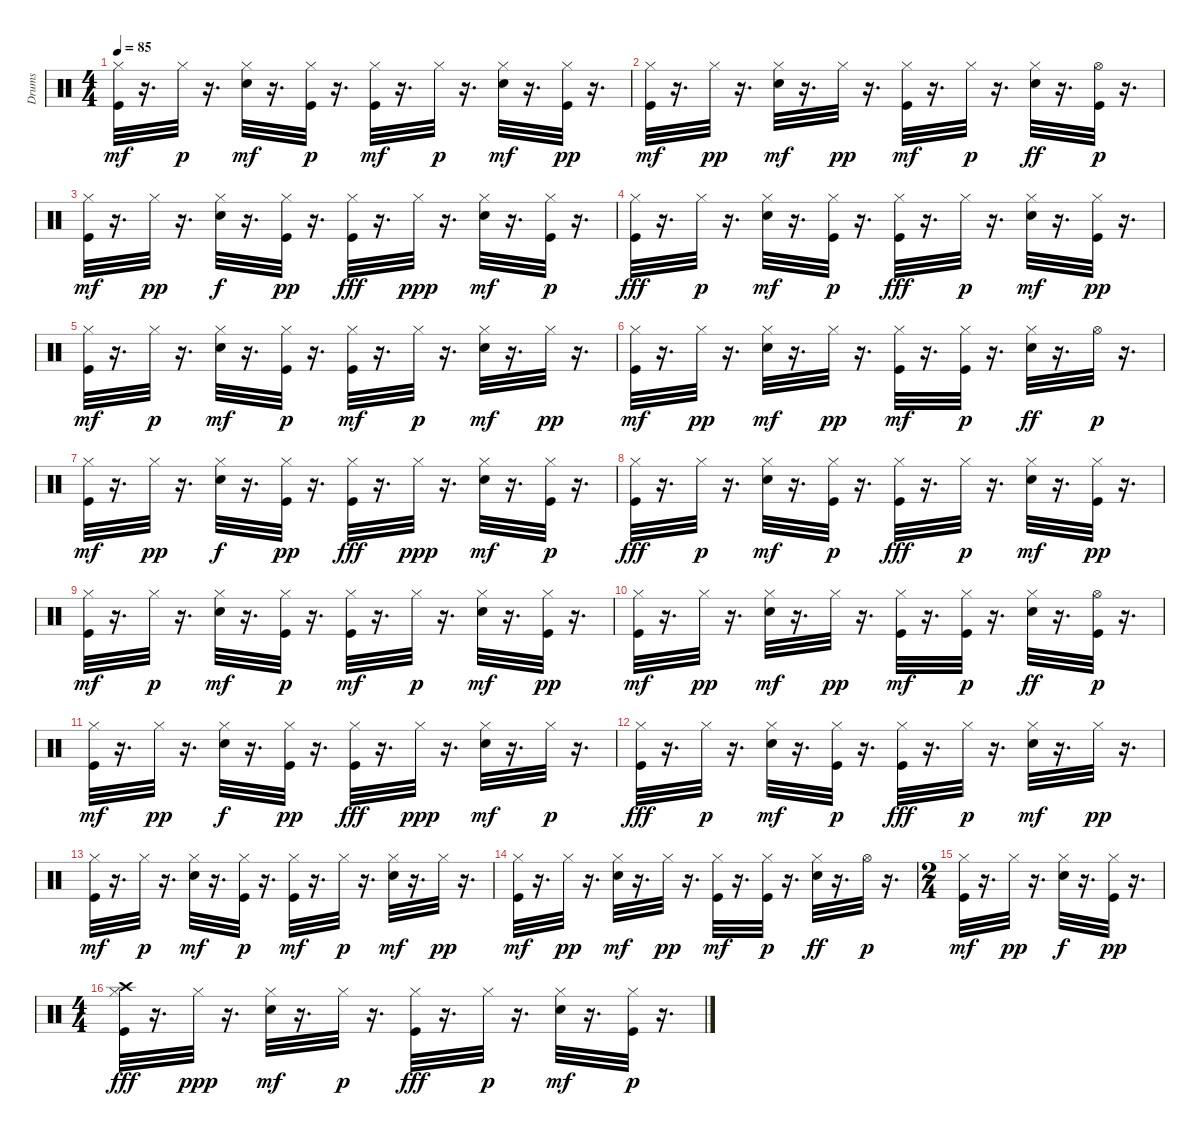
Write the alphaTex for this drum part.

\track ("Drums" "Drums") {instrument percussion}
\staff {score}
\articulation defaults
\ts (4 4)
\tempo 85
\clef neutral
\ks c
("Kick (hit)" "Hi-Hat (closed)").32{dy mf} r.16{d} "Hi-Hat (closed)".32{dy p} r.16{d} ("Electric Snare (hit)" "Hi-Hat (closed)").32{dy mf} r.16{d} ("Kick (hit)" "Hi-Hat (closed)").32{dy p} r.16{d} ("Kick (hit)" "Hi-Hat (closed)").32{dy mf} r.16{d} "Hi-Hat (closed)".32{dy p} r.16{d} ("Electric Snare (hit)" "Hi-Hat (closed)").32{dy mf} r.16{d} ("Kick (hit)" "Hi-Hat (closed)").32{dy pp} r.16{d} |
("Kick (hit)" "Hi-Hat (closed)").32{dy mf} r.16{d} "Hi-Hat (closed)".32{dy pp} r.16{d} ("Electric Snare (hit)" "Hi-Hat (closed)").32{dy mf} r.16{d} "Hi-Hat (closed)".32{dy pp} r.16{d} ("Kick (hit)" "Hi-Hat (closed)").32{dy mf} r.16{d} "Hi-Hat (closed)".32{dy p} r.16{d} ("Electric Snare (hit)" "Hi-Hat (closed)").32{dy ff} r.16{d} ("Kick (hit)" "Hi-Hat (open)").32{dy p} r.16{d} |
("Kick (hit)" "Hi-Hat (closed)").32{dy mf} r.16{d} "Hi-Hat (closed)".32{dy pp} r.16{d} ("Electric Snare (hit)" "Hi-Hat (closed)").32{dy f} r.16{d} ("Kick (hit)" "Hi-Hat (closed)").32{dy pp} r.16{d} ("Kick (hit)" "Hi-Hat (closed)").32{dy fff} r.16{d} "Hi-Hat (closed)".32{dy ppp} r.16{d} ("Electric Snare (hit)" "Hi-Hat (closed)").32{dy mf} r.16{d} ("Kick (hit)" "Hi-Hat (closed)").32{dy p} r.16{d} |
("Kick (hit)" "Hi-Hat (closed)").32{dy fff} r.16{d} "Hi-Hat (closed)".32{dy p} r.16{d} ("Electric Snare (hit)" "Hi-Hat (closed)").32{dy mf} r.16{d} ("Kick (hit)" "Hi-Hat (closed)").32{dy p} r.16{d} ("Kick (hit)" "Hi-Hat (closed)").32{dy fff} r.16{d} "Hi-Hat (closed)".32{dy p} r.16{d} ("Electric Snare (hit)" "Hi-Hat (closed)").32{dy mf} r.16{d} ("Kick (hit)" "Hi-Hat (closed)").32{dy pp} r.16{d} |
("Kick (hit)" "Hi-Hat (closed)").32{dy mf} r.16{d} "Hi-Hat (closed)".32{dy p} r.16{d} ("Electric Snare (hit)" "Hi-Hat (closed)").32{dy mf} r.16{d} ("Kick (hit)" "Hi-Hat (closed)").32{dy p} r.16{d} ("Kick (hit)" "Hi-Hat (closed)").32{dy mf} r.16{d} "Hi-Hat (closed)".32{dy p} r.16{d} ("Electric Snare (hit)" "Hi-Hat (closed)").32{dy mf} r.16{d} "Hi-Hat (closed)".32{dy pp} r.16{d} |
("Kick (hit)" "Hi-Hat (closed)").32{dy mf} r.16{d} "Hi-Hat (closed)".32{dy pp} r.16{d} ("Electric Snare (hit)" "Hi-Hat (closed)").32{dy mf} r.16{d} "Hi-Hat (closed)".32{dy pp} r.16{d} ("Kick (hit)" "Hi-Hat (closed)").32{dy mf} r.16{d} ("Kick (hit)" "Hi-Hat (closed)").32{dy p} r.16{d} ("Electric Snare (hit)" "Hi-Hat (closed)").32{dy ff} r.16{d} "Hi-Hat (open)".32{dy p} r.16{d} |
("Kick (hit)" "Hi-Hat (closed)").32{dy mf} r.16{d} "Hi-Hat (closed)".32{dy pp} r.16{d} ("Electric Snare (hit)" "Hi-Hat (closed)").32{dy f} r.16{d} ("Kick (hit)" "Hi-Hat (closed)").32{dy pp} r.16{d} ("Kick (hit)" "Hi-Hat (closed)").32{dy fff} r.16{d} "Hi-Hat (closed)".32{dy ppp} r.16{d} ("Electric Snare (hit)" "Hi-Hat (closed)").32{dy mf} r.16{d} ("Kick (hit)" "Hi-Hat (closed)").32{dy p} r.16{d} |
("Kick (hit)" "Hi-Hat (closed)").32{dy fff} r.16{d} "Hi-Hat (closed)".32{dy p} r.16{d} ("Electric Snare (hit)" "Hi-Hat (closed)").32{dy mf} r.16{d} ("Kick (hit)" "Hi-Hat (closed)").32{dy p} r.16{d} ("Kick (hit)" "Hi-Hat (closed)").32{dy fff} r.16{d} "Hi-Hat (closed)".32{dy p} r.16{d} ("Electric Snare (hit)" "Hi-Hat (closed)").32{dy mf} r.16{d} ("Kick (hit)" "Hi-Hat (closed)").32{dy pp} r.16{d} |
("Kick (hit)" "Hi-Hat (closed)").32{dy mf} r.16{d} "Hi-Hat (closed)".32{dy p} r.16{d} ("Electric Snare (hit)" "Hi-Hat (closed)").32{dy mf} r.16{d} ("Kick (hit)" "Hi-Hat (closed)").32{dy p} r.16{d} ("Kick (hit)" "Hi-Hat (closed)").32{dy mf} r.16{d} "Hi-Hat (closed)".32{dy p} r.16{d} ("Electric Snare (hit)" "Hi-Hat (closed)").32{dy mf} r.16{d} ("Kick (hit)" "Hi-Hat (closed)").32{dy pp} r.16{d} |
("Kick (hit)" "Hi-Hat (closed)").32{dy mf} r.16{d} "Hi-Hat (closed)".32{dy pp} r.16{d} ("Electric Snare (hit)" "Hi-Hat (closed)").32{dy mf} r.16{d} "Hi-Hat (closed)".32{dy pp} r.16{d} ("Kick (hit)" "Hi-Hat (closed)").32{dy mf} r.16{d} ("Kick (hit)" "Hi-Hat (closed)").32{dy p} r.16{d} ("Electric Snare (hit)" "Hi-Hat (closed)").32{dy ff} r.16{d} ("Kick (hit)" "Hi-Hat (open)").32{dy p} r.16{d} |
("Kick (hit)" "Hi-Hat (closed)").32{dy mf} r.16{d} "Hi-Hat (closed)".32{dy pp} r.16{d} ("Electric Snare (hit)" "Hi-Hat (closed)").32{dy f} r.16{d} ("Kick (hit)" "Hi-Hat (closed)").32{dy pp} r.16{d} ("Kick (hit)" "Hi-Hat (closed)").32{dy fff} r.16{d} "Hi-Hat (closed)".32{dy ppp} r.16{d} ("Electric Snare (hit)" "Hi-Hat (closed)").32{dy mf} r.16{d} "Hi-Hat (closed)".32{dy p} r.16{d} |
("Kick (hit)" "Hi-Hat (closed)").32{dy fff} r.16{d} "Hi-Hat (closed)".32{dy p} r.16{d} ("Electric Snare (hit)" "Hi-Hat (closed)").32{dy mf} r.16{d} ("Kick (hit)" "Hi-Hat (closed)").32{dy p} r.16{d} ("Kick (hit)" "Hi-Hat (closed)").32{dy fff} r.16{d} "Hi-Hat (closed)".32{dy p} r.16{d} ("Electric Snare (hit)" "Hi-Hat (closed)").32{dy mf} r.16{d} "Hi-Hat (closed)".32{dy pp} r.16{d} |
("Kick (hit)" "Hi-Hat (closed)").32{dy mf} r.16{d} "Hi-Hat (closed)".32{dy p} r.16{d} ("Electric Snare (hit)" "Hi-Hat (closed)").32{dy mf} r.16{d} ("Kick (hit)" "Hi-Hat (closed)").32{dy p} r.16{d} ("Kick (hit)" "Hi-Hat (closed)").32{dy mf} r.16{d} "Hi-Hat (closed)".32{dy p} r.16{d} ("Electric Snare (hit)" "Hi-Hat (closed)").32{dy mf} r.16{d} "Hi-Hat (closed)".32{dy pp} r.16{d} |
("Kick (hit)" "Hi-Hat (closed)").32{dy mf} r.16{d} "Hi-Hat (closed)".32{dy pp} r.16{d} ("Electric Snare (hit)" "Hi-Hat (closed)").32{dy mf} r.16{d} "Hi-Hat (closed)".32{dy pp} r.16{d} ("Kick (hit)" "Hi-Hat (closed)").32{dy mf} r.16{d} ("Kick (hit)" "Hi-Hat (closed)").32{dy p} r.16{d} ("Electric Snare (hit)" "Hi-Hat (closed)").32{dy ff} r.16{d} "Hi-Hat (open)".32{dy p} r.16{d} |
\ts (2 4)
("Kick (hit)" "Hi-Hat (closed)").32{dy mf} r.16{d} "Hi-Hat (closed)".32{dy pp} r.16{d} ("Electric Snare (hit)" "Hi-Hat (closed)").32{dy f} r.16{d} ("Kick (hit)" "Hi-Hat (closed)").32{dy pp} r.16{d} |
\ts (4 4)
("Kick (hit)" "Crash high (hit)" "Hi-Hat (closed)").32{dy fff} r.16{d} "Hi-Hat (closed)".32{dy ppp} r.16{d} ("Electric Snare (hit)" "Hi-Hat (closed)").32{dy mf} r.16{d} "Hi-Hat (closed)".32{dy p} r.16{d} ("Kick (hit)" "Hi-Hat (closed)").32{dy fff} r.16{d} "Hi-Hat (closed)".32{dy p} r.16{d} ("Electric Snare (hit)" "Hi-Hat (closed)").32{dy mf} r.16{d} ("Kick (hit)" "Hi-Hat (closed)").32{dy p} r.16{d}
